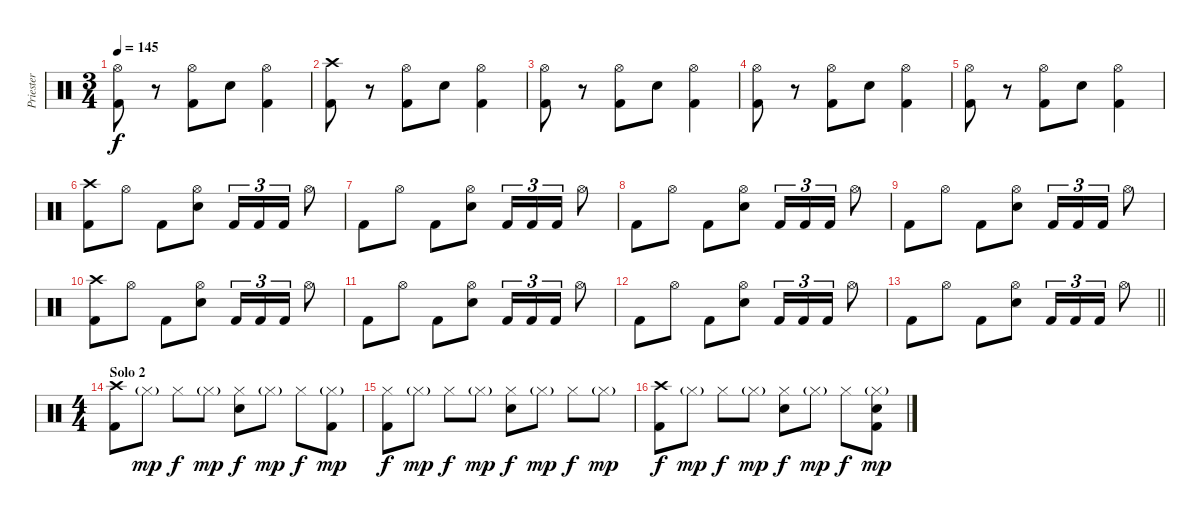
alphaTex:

\track ("Priester" "Priester") {instrument percussion}
\staff {score}
\articulation defaults
\ts (3 4)
\tempo 145
\clef neutral
\ks c
("Hi-Hat (open)" "Kick (hit) 2").8{dy f} r.8 ("Hi-Hat (open)" "Kick (hit) 2").8 "Electric Snare (hit)".8 ("Hi-Hat (open)" "Kick (hit) 2").4 |
("Crash high (hit)" "Kick (hit) 2").8 r.8 ("Hi-Hat (open)" "Kick (hit) 2").8 "Electric Snare (hit)".8 ("Hi-Hat (open)" "Kick (hit) 2").4 |
("Hi-Hat (open)" "Kick (hit) 2").8 r.8 ("Hi-Hat (open)" "Kick (hit) 2").8 "Electric Snare (hit)".8 ("Hi-Hat (open)" "Kick (hit) 2").4 |
("Hi-Hat (open)" "Kick (hit) 2").8 r.8 ("Hi-Hat (open)" "Kick (hit) 2").8 "Electric Snare (hit)".8 ("Hi-Hat (open)" "Kick (hit) 2").4 |
("Hi-Hat (open)" "Kick (hit) 2").8 r.8 ("Hi-Hat (open)" "Kick (hit) 2").8 "Electric Snare (hit)".8 ("Hi-Hat (open)" "Kick (hit) 2").4 |
("Crash high (hit)" "Kick (hit) 2").8 "Hi-Hat (open)".8 "Kick (hit) 2".8 ("Hi-Hat (open)" "Electric Snare (hit)").8 "Kick (hit) 2".16{tu (3 2)} "Kick (hit) 2".16{tu (3 2)} "Kick (hit) 2".16{tu (3 2)} "Hi-Hat (open)".8 |
"Kick (hit) 2".8 "Hi-Hat (open)".8 "Kick (hit) 2".8 ("Hi-Hat (open)" "Electric Snare (hit)").8 "Kick (hit) 2".16{tu (3 2)} "Kick (hit) 2".16{tu (3 2)} "Kick (hit) 2".16{tu (3 2)} "Hi-Hat (open)".8 |
"Kick (hit) 2".8 "Hi-Hat (open)".8 "Kick (hit) 2".8 ("Hi-Hat (open)" "Electric Snare (hit)").8 "Kick (hit) 2".16{tu (3 2)} "Kick (hit) 2".16{tu (3 2)} "Kick (hit) 2".16{tu (3 2)} "Hi-Hat (open)".8 |
"Kick (hit) 2".8 "Hi-Hat (open)".8 "Kick (hit) 2".8 ("Hi-Hat (open)" "Electric Snare (hit)").8 "Kick (hit) 2".16{tu (3 2)} "Kick (hit) 2".16{tu (3 2)} "Kick (hit) 2".16{tu (3 2)} "Hi-Hat (open)".8 |
("Crash high (hit)" "Kick (hit) 2").8 "Hi-Hat (open)".8 "Kick (hit) 2".8 ("Hi-Hat (open)" "Electric Snare (hit)").8 "Kick (hit) 2".16{tu (3 2)} "Kick (hit) 2".16{tu (3 2)} "Kick (hit) 2".16{tu (3 2)} "Hi-Hat (open)".8 |
"Kick (hit) 2".8 "Hi-Hat (open)".8 "Kick (hit) 2".8 ("Hi-Hat (open)" "Electric Snare (hit)").8 "Kick (hit) 2".16{tu (3 2)} "Kick (hit) 2".16{tu (3 2)} "Kick (hit) 2".16{tu (3 2)} "Hi-Hat (open)".8 |
"Kick (hit) 2".8 "Hi-Hat (open)".8 "Kick (hit) 2".8 ("Hi-Hat (open)" "Electric Snare (hit)").8 "Kick (hit) 2".16{tu (3 2)} "Kick (hit) 2".16{tu (3 2)} "Kick (hit) 2".16{tu (3 2)} "Hi-Hat (open)".8 |
\barLineRight lightlight "Kick (hit) 2".8 "Hi-Hat (open)".8 "Kick (hit) 2".8
("Hi-Hat (open)" "Electric Snare (hit)").8 "Kick (hit) 2".16{tu (3 2)} "Kick (hit) 2".16{tu (3 2)} "Kick (hit) 2".16{tu (3 2)} "Hi-Hat (open)".8 |
\ts (4 4)
\section ("" "Solo 2")
("Crash high (hit)" "Kick (hit) 2").8 "Hi-Hat (closed)"{g}.8{dy mp} "Hi-Hat (closed)".8{dy f} "Hi-Hat (closed)"{g}.8{dy mp} ("Hi-Hat (closed)" "Electric Snare (hit)").8{dy f} "Hi-Hat (closed)"{g}.8{dy mp} "Hi-Hat (closed)".8{dy f} ("Hi-Hat (closed)"{g} "Kick (hit) 2").8{dy mp} |
("Hi-Hat (closed)" "Kick (hit) 2").8{dy f} "Hi-Hat (closed)"{g}.8{dy mp} "Hi-Hat (closed)".8{dy f} "Hi-Hat (closed)"{g}.8{dy mp} ("Hi-Hat (closed)" "Electric Snare (hit)").8{dy f} "Hi-Hat (closed)"{g}.8{dy mp} "Hi-Hat (closed)".8{dy f} "Hi-Hat (closed)"{g}.8{dy mp} |
("Crash high (hit)" "Kick (hit) 2").8{dy f} "Hi-Hat (closed)"{g}.8{dy mp} "Hi-Hat (closed)".8{dy f} "Hi-Hat (closed)"{g}.8{dy mp} ("Hi-Hat (closed)" "Electric Snare (hit)").8{dy f} "Hi-Hat (closed)"{g}.8{dy mp} "Hi-Hat (closed)".8{dy f} ("Hi-Hat (closed)"{g} "Electric Snare (hit)" "Kick (hit) 2").8{dy mp}
